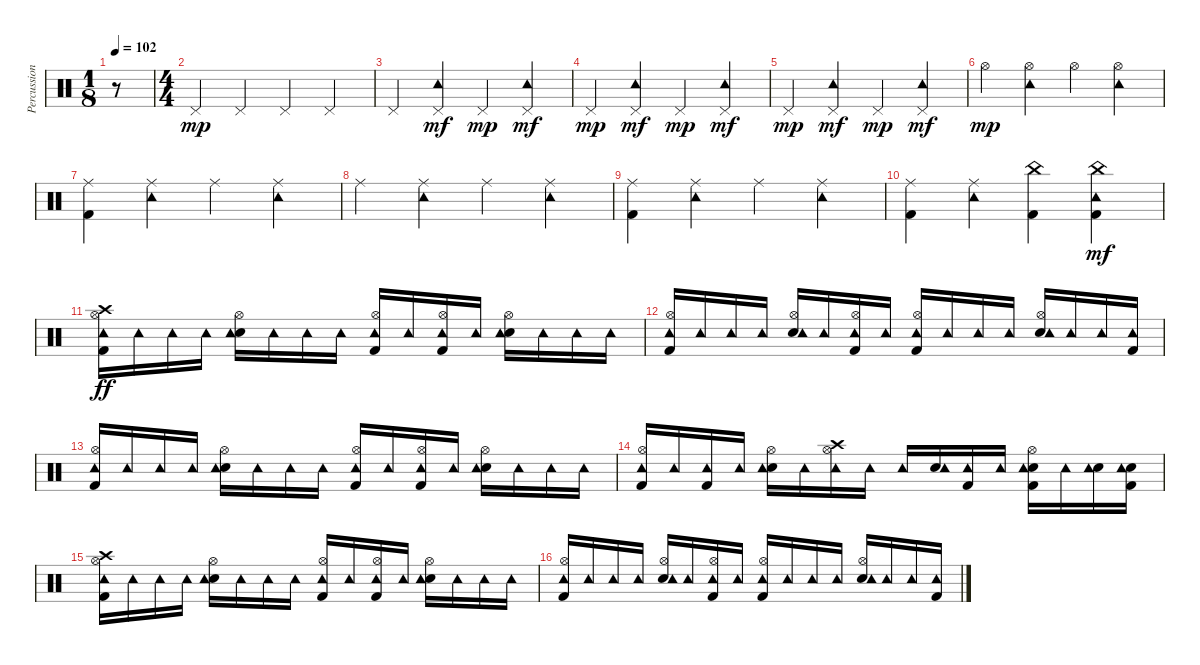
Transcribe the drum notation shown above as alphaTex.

\track ("Percussions" "Percussion") {instrument percussion}
\staff {score}
\articulation defaults
\ts (1 8)
\tempo 102
\clef neutral
\ks c
r.8{dy mp} |
\ts (4 4)
"Pedal Hi-Hat (hit)".4 "Pedal Hi-Hat (hit)".4 "Pedal Hi-Hat (hit)".4 "Pedal Hi-Hat (hit)".4 |
"Pedal Hi-Hat (hit)".4 ("Pedal Hi-Hat (hit)" "Tambourine (hit)").4{dy mf} "Pedal Hi-Hat (hit)".4{dy mp} ("Pedal Hi-Hat (hit)" "Tambourine (hit)").4{dy mf} |
"Pedal Hi-Hat (hit)".4{dy mp} ("Pedal Hi-Hat (hit)" "Tambourine (hit)").4{dy mf} "Pedal Hi-Hat (hit)".4{dy mp} ("Pedal Hi-Hat (hit)" "Tambourine (hit)").4{dy mf} |
"Pedal Hi-Hat (hit)".4{dy mp} ("Pedal Hi-Hat (hit)" "Tambourine (hit)").4{dy mf} "Pedal Hi-Hat (hit)".4{dy mp} ("Pedal Hi-Hat (hit)" "Tambourine (hit)").4{dy mf} |
"Hi-Hat (open)".4{dy mp} ("Hi-Hat (open)" "Tambourine (hit)").4 "Hi-Hat (open)".4 ("Hi-Hat (open)" "Tambourine (hit)").4 |
("Kick (hit) 2" "Ride (middle)").4 ("Ride (middle)" "Tambourine (hit)").4 "Ride (middle)".4 ("Ride (middle)" "Tambourine (hit)").4 |
"Ride (middle)".4 ("Ride (middle)" "Tambourine (hit)").4 "Ride (middle)".4 ("Ride (middle)" "Tambourine (hit)").4 |
("Kick (hit) 2" "Ride (middle)").4 ("Ride (middle)" "Tambourine (hit)").4 "Ride (middle)".4 ("Ride (middle)" "Tambourine (hit)").4 |
("Kick (hit) 2" "Ride (middle)").4 ("Ride (middle)" "Tambourine (hit)").4 ("Kick (hit) 2" "China (hit)").4 ("Kick (hit) 2" "China (hit)" "Tambourine (hit)").4{dy mf} |
("Kick (hit) 2" "Hi-Hat (open)" "Crash high (hit)" "Tambourine (hit)").16{dy ff} "Tambourine (hit)".16 "Tambourine (hit)".16 "Tambourine (hit)".16 ("Snare (hit) 2" "Hi-Hat (open)" "Tambourine (hit)").16 "Tambourine (hit)".16 "Tambourine (hit)".16 "Tambourine (hit)".16 ("Kick (hit) 2" "Hi-Hat (open)" "Tambourine (hit)").16 "Tambourine (hit)".16 ("Kick (hit) 2" "Hi-Hat (open)" "Tambourine (hit)").16 "Tambourine (hit)".16 ("Snare (hit) 2" "Hi-Hat (open)" "Tambourine (hit)").16 "Tambourine (hit)".16 "Tambourine (hit)".16 "Tambourine (hit)".16 |
("Kick (hit) 2" "Hi-Hat (open)" "Tambourine (hit)").16 "Tambourine (hit)".16 "Tambourine (hit)".16 "Tambourine (hit)".16 ("Snare (hit) 2" "Hi-Hat (open)" "Tambourine (hit)").16 "Tambourine (hit)".16 ("Kick (hit) 2" "Hi-Hat (open)" "Tambourine (hit)").16 "Tambourine (hit)".16 ("Kick (hit) 2" "Hi-Hat (open)" "Tambourine (hit)").16 "Tambourine (hit)".16 "Tambourine (hit)".16 "Tambourine (hit)".16 ("Snare (hit) 2" "Hi-Hat (open)" "Tambourine (hit)").16 "Tambourine (hit)".16 "Tambourine (hit)".16 ("Kick (hit) 2" "Tambourine (hit)").16 |
("Kick (hit) 2" "Hi-Hat (open)" "Tambourine (hit)").16 "Tambourine (hit)".16 "Tambourine (hit)".16 "Tambourine (hit)".16 ("Snare (hit) 2" "Hi-Hat (open)" "Tambourine (hit)").16 "Tambourine (hit)".16 "Tambourine (hit)".16 "Tambourine (hit)".16 ("Kick (hit) 2" "Hi-Hat (open)" "Tambourine (hit)").16 "Tambourine (hit)".16 ("Kick (hit) 2" "Hi-Hat (open)" "Tambourine (hit)").16 "Tambourine (hit)".16 ("Snare (hit) 2" "Hi-Hat (open)" "Tambourine (hit)").16 "Tambourine (hit)".16 "Tambourine (hit)".16 "Tambourine (hit)".16 |
("Kick (hit) 2" "Hi-Hat (open)" "Tambourine (hit)").16 "Tambourine (hit)".16 ("Kick (hit) 2" "Tambourine (hit)").16 "Tambourine (hit)".16 ("Snare (hit) 2" "Hi-Hat (open)" "Tambourine (hit)").16 "Tambourine (hit)".16 ("Hi-Hat (open)" "Crash high (hit)" "Tambourine (hit)").16 "Tambourine (hit)".16 "Tambourine (hit)".16 ("Snare (hit) 2" "Tambourine (hit)").16 ("Kick (hit) 2" "Tambourine (hit)").16 "Tambourine (hit)".16 ("Kick (hit) 2" "Snare (hit) 2" "Hi-Hat (open)" "Tambourine (hit)").16 "Tambourine (hit)".16 ("Snare (hit) 2" "Tambourine (hit)").16 ("Kick (hit) 2" "Snare (hit) 2" "Tambourine (hit)").16 |
("Kick (hit) 2" "Hi-Hat (open)" "Crash high (hit)" "Tambourine (hit)").16 "Tambourine (hit)".16 "Tambourine (hit)".16 "Tambourine (hit)".16 ("Snare (hit) 2" "Hi-Hat (open)" "Tambourine (hit)").16 "Tambourine (hit)".16 "Tambourine (hit)".16 "Tambourine (hit)".16 ("Kick (hit) 2" "Hi-Hat (open)" "Tambourine (hit)").16 "Tambourine (hit)".16 ("Kick (hit) 2" "Hi-Hat (open)" "Tambourine (hit)").16 "Tambourine (hit)".16 ("Snare (hit) 2" "Hi-Hat (open)" "Tambourine (hit)").16 "Tambourine (hit)".16 "Tambourine (hit)".16 "Tambourine (hit)".16 |
("Kick (hit) 2" "Hi-Hat (open)" "Tambourine (hit)").16 "Tambourine (hit)".16 "Tambourine (hit)".16 "Tambourine (hit)".16 ("Snare (hit) 2" "Hi-Hat (open)" "Tambourine (hit)").16 "Tambourine (hit)".16 ("Kick (hit) 2" "Hi-Hat (open)" "Tambourine (hit)").16 "Tambourine (hit)".16 ("Kick (hit) 2" "Hi-Hat (open)" "Tambourine (hit)").16 "Tambourine (hit)".16 "Tambourine (hit)".16 "Tambourine (hit)".16 ("Snare (hit) 2" "Hi-Hat (open)" "Tambourine (hit)").16 "Tambourine (hit)".16 "Tambourine (hit)".16 ("Kick (hit) 2" "Tambourine (hit)").16
